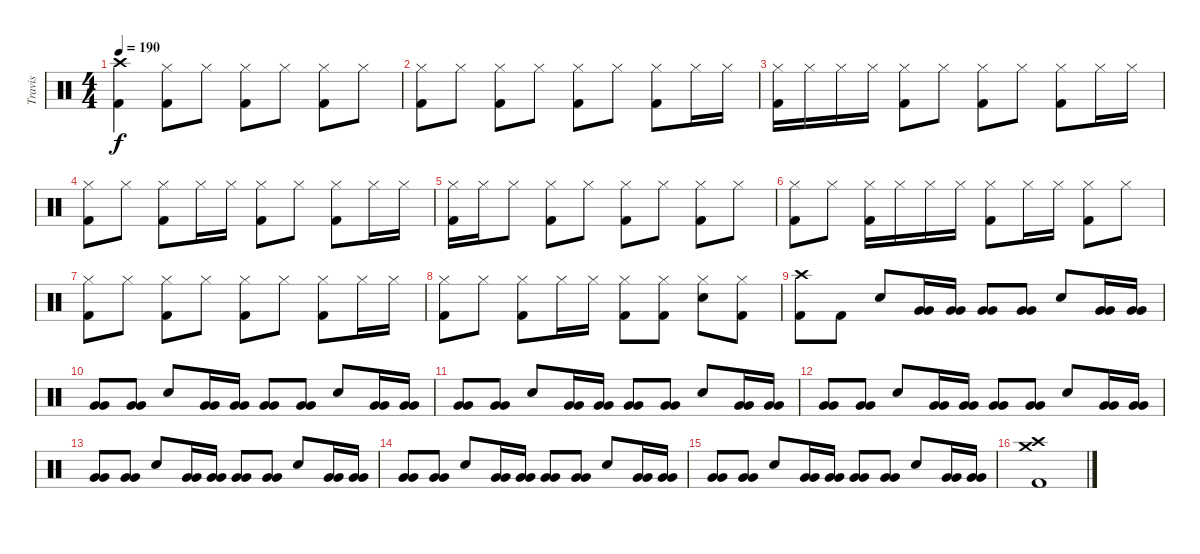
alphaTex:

\track ("Travis" "Travis") {instrument percussion}
\staff {score}
\articulation defaults
\ts (4 4)
\tempo 190
\clef neutral
\ks c
("Crash high (hit)" "Kick (hit) 2").4{dy f} ("Hi-Hat (closed)" "Kick (hit) 2").8 "Hi-Hat (closed)".8 ("Hi-Hat (closed)" "Kick (hit) 2").8 "Hi-Hat (closed)".8 ("Hi-Hat (closed)" "Kick (hit) 2").8 "Hi-Hat (closed)".8 |
("Hi-Hat (closed)" "Kick (hit) 2").8 "Hi-Hat (closed)".8 ("Hi-Hat (closed)" "Kick (hit) 2").8 "Hi-Hat (closed)".8 ("Hi-Hat (closed)" "Kick (hit) 2").8 "Hi-Hat (closed)".8 ("Hi-Hat (closed)" "Kick (hit) 2").8 "Hi-Hat (closed)".16 "Hi-Hat (closed)".16 |
("Hi-Hat (closed)" "Kick (hit) 2").16 "Hi-Hat (closed)".16 "Hi-Hat (closed)".16 "Hi-Hat (closed)".16 ("Hi-Hat (closed)" "Kick (hit) 2").8 "Hi-Hat (closed)".8 ("Hi-Hat (closed)" "Kick (hit) 2").8 "Hi-Hat (closed)".8 ("Hi-Hat (closed)" "Kick (hit) 2").8 "Hi-Hat (closed)".16 "Hi-Hat (closed)".16 |
("Hi-Hat (closed)" "Kick (hit) 2").8 "Hi-Hat (closed)".8 ("Hi-Hat (closed)" "Kick (hit) 2").8 "Hi-Hat (closed)".16 "Hi-Hat (closed)".16 ("Hi-Hat (closed)" "Kick (hit) 2").8 "Hi-Hat (closed)".8 ("Hi-Hat (closed)" "Kick (hit) 2").8 "Hi-Hat (closed)".16 "Hi-Hat (closed)".16 |
("Hi-Hat (closed)" "Kick (hit) 2").16 "Hi-Hat (closed)".16 "Hi-Hat (closed)".8 ("Hi-Hat (closed)" "Kick (hit) 2").8 "Hi-Hat (closed)".8 ("Hi-Hat (closed)" "Kick (hit) 2").8 "Hi-Hat (closed)".8 ("Hi-Hat (closed)" "Kick (hit) 2").8 "Hi-Hat (closed)".8 |
("Hi-Hat (closed)" "Kick (hit) 2").8 "Hi-Hat (closed)".8 ("Hi-Hat (closed)" "Kick (hit) 2").16 "Hi-Hat (closed)".16 "Hi-Hat (closed)".16 "Hi-Hat (closed)".16 ("Hi-Hat (closed)" "Kick (hit) 2").8 "Hi-Hat (closed)".16 "Hi-Hat (closed)".16 ("Hi-Hat (closed)" "Kick (hit) 2").8 "Hi-Hat (closed)".8 |
("Hi-Hat (closed)" "Kick (hit) 2").8 "Hi-Hat (closed)".8 ("Hi-Hat (closed)" "Kick (hit) 2").8 "Hi-Hat (closed)".8 ("Hi-Hat (closed)" "Kick (hit) 2").8 "Hi-Hat (closed)".8 ("Hi-Hat (closed)" "Kick (hit) 2").8 "Hi-Hat (closed)".16 "Hi-Hat (closed)".16 |
("Hi-Hat (closed)" "Kick (hit) 2").8 "Hi-Hat (closed)".8 ("Hi-Hat (closed)" "Kick (hit) 2").8 "Hi-Hat (closed)".16 "Hi-Hat (closed)".16 ("Hi-Hat (closed)" "Kick (hit) 2").8 ("Hi-Hat (closed)" "Kick (hit) 2").8 ("Hi-Hat (closed)" "Electric Snare (hit)").8 ("Hi-Hat (closed)" "Kick (hit) 2").8 |
("Crash high (hit)" "Kick (hit) 2").8 "Kick (hit) 2".8 "Electric Snare (hit)".8 ("Very Low Tom (hit)" "Very Low Tom (hit)").16 ("Very Low Tom (hit)" "Very Low Tom (hit)").16 ("Very Low Tom (hit)" "Very Low Tom (hit)").8 ("Very Low Tom (hit)" "Very Low Tom (hit)").8 "Electric Snare (hit)".8 ("Very Low Tom (hit)" "Very Low Tom (hit)").16 ("Very Low Tom (hit)" "Very Low Tom (hit)").16 |
("Very Low Tom (hit)" "Very Low Tom (hit)").8 ("Very Low Tom (hit)" "Very Low Tom (hit)").8 "Electric Snare (hit)".8 ("Very Low Tom (hit)" "Very Low Tom (hit)").16 ("Very Low Tom (hit)" "Very Low Tom (hit)").16 ("Very Low Tom (hit)" "Very Low Tom (hit)").8 ("Very Low Tom (hit)" "Very Low Tom (hit)").8 "Electric Snare (hit)".8 ("Very Low Tom (hit)" "Very Low Tom (hit)").16 ("Very Low Tom (hit)" "Very Low Tom (hit)").16 |
("Very Low Tom (hit)" "Very Low Tom (hit)").8 ("Very Low Tom (hit)" "Very Low Tom (hit)").8 "Electric Snare (hit)".8 ("Very Low Tom (hit)" "Very Low Tom (hit)").16 ("Very Low Tom (hit)" "Very Low Tom (hit)").16 ("Very Low Tom (hit)" "Very Low Tom (hit)").8 ("Very Low Tom (hit)" "Very Low Tom (hit)").8 "Electric Snare (hit)".8 ("Very Low Tom (hit)" "Very Low Tom (hit)").16 ("Very Low Tom (hit)" "Very Low Tom (hit)").16 |
("Very Low Tom (hit)" "Very Low Tom (hit)").8 ("Very Low Tom (hit)" "Very Low Tom (hit)").8 "Electric Snare (hit)".8 ("Very Low Tom (hit)" "Very Low Tom (hit)").16 ("Very Low Tom (hit)" "Very Low Tom (hit)").16 ("Very Low Tom (hit)" "Very Low Tom (hit)").8 ("Very Low Tom (hit)" "Very Low Tom (hit)").8 "Electric Snare (hit)".8 ("Very Low Tom (hit)" "Very Low Tom (hit)").16 ("Very Low Tom (hit)" "Very Low Tom (hit)").16 |
("Very Low Tom (hit)" "Very Low Tom (hit)").8 ("Very Low Tom (hit)" "Very Low Tom (hit)").8 "Electric Snare (hit)".8 ("Very Low Tom (hit)" "Very Low Tom (hit)").16 ("Very Low Tom (hit)" "Very Low Tom (hit)").16 ("Very Low Tom (hit)" "Very Low Tom (hit)").8 ("Very Low Tom (hit)" "Very Low Tom (hit)").8 "Electric Snare (hit)".8 ("Very Low Tom (hit)" "Very Low Tom (hit)").16 ("Very Low Tom (hit)" "Very Low Tom (hit)").16 |
("Very Low Tom (hit)" "Very Low Tom (hit)").8 ("Very Low Tom (hit)" "Very Low Tom (hit)").8 "Electric Snare (hit)".8 ("Very Low Tom (hit)" "Very Low Tom (hit)").16 ("Very Low Tom (hit)" "Very Low Tom (hit)").16 ("Very Low Tom (hit)" "Very Low Tom (hit)").8 ("Very Low Tom (hit)" "Very Low Tom (hit)").8 "Electric Snare (hit)".8 ("Very Low Tom (hit)" "Very Low Tom (hit)").16 ("Very Low Tom (hit)" "Very Low Tom (hit)").16 |
("Very Low Tom (hit)" "Very Low Tom (hit)").8 ("Very Low Tom (hit)" "Very Low Tom (hit)").8 "Electric Snare (hit)".8 ("Very Low Tom (hit)" "Very Low Tom (hit)").16 ("Very Low Tom (hit)" "Very Low Tom (hit)").16 ("Very Low Tom (hit)" "Very Low Tom (hit)").8 ("Very Low Tom (hit)" "Very Low Tom (hit)").8 "Electric Snare (hit)".8 ("Very Low Tom (hit)" "Very Low Tom (hit)").16 ("Very Low Tom (hit)" "Very Low Tom (hit)").16 |
("Crash high (hit)" "Crash medium (hit)" "Kick (hit) 2").1
